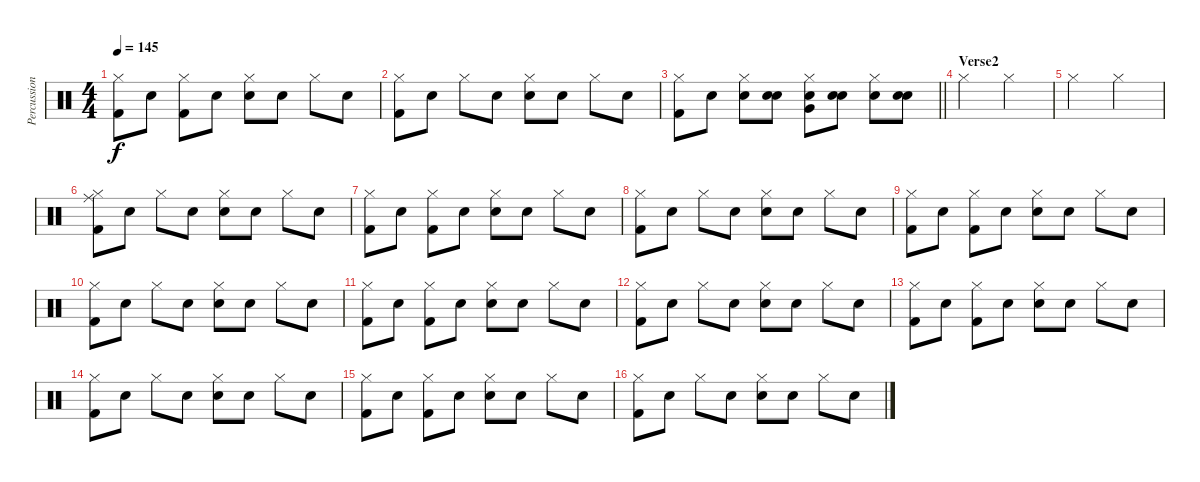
\track ("Percussion" "Percussion") {instrument percussion}
\staff {score}
\articulation defaults
\ts (4 4)
\tempo 145
\clef neutral
\ks c
("Hi-Hat (closed)" "Kick (hit) 2").8{dy f} "Snare (hit)"{x}.8 ("Hi-Hat (closed)" "Kick (hit) 2").8 "Snare (hit)"{x}.8 ("Hi-Hat (closed)" "Electric Snare (hit)").8 "Snare (hit)"{x}.8 "Hi-Hat (closed)".8 "Snare (hit)"{x}.8 |
("Hi-Hat (closed)" "Kick (hit) 2").8 "Snare (hit)"{x}.8 "Hi-Hat (closed)".8 "Snare (hit)"{x}.8 ("Hi-Hat (closed)" "Electric Snare (hit)").8 "Snare (hit)"{x}.8 "Hi-Hat (closed)".8 "Snare (hit)"{x}.8 |
\barLineRight lightlight
("Hi-Hat (closed)" "Kick (hit) 2").8 "Snare (hit)"{x}.8 ("Hi-Hat (closed)" "Electric Snare (hit)"{x}).8 ("Snare (hit)"{x} "Electric Snare (hit)").8 ("Hi-Hat (closed)" "Very Low Tom (hit)" "Electric Snare (hit)").8 ("Snare (hit)"{x} "Electric Snare (hit)"{x}).8 ("Hi-Hat (closed)" "Electric Snare (hit)").8 ("Snare (hit)"{x} "Electric Snare (hit)").8 |
\section ("" "Verse2")
"Hi-Hat (closed)".2 "Hi-Hat (closed)".2 |
"Hi-Hat (closed)".2 "Hi-Hat (closed)".2 |
("Hi-Hat (closed)" "Ride (middle)" "Kick (hit) 2").8 "Snare (hit)"{x}.8 "Hi-Hat (closed)".8 "Snare (hit)"{x}.8 ("Hi-Hat (closed)" "Electric Snare (hit)").8 "Snare (hit)"{x}.8 "Hi-Hat (closed)".8 "Snare (hit)"{x}.8 |
("Hi-Hat (closed)" "Kick (hit) 2").8 "Snare (hit)"{x}.8 ("Hi-Hat (closed)" "Kick (hit) 2").8 "Snare (hit)"{x}.8 ("Hi-Hat (closed)" "Electric Snare (hit)").8 "Snare (hit)"{x}.8 "Hi-Hat (closed)".8 "Snare (hit)"{x}.8 |
("Hi-Hat (closed)" "Kick (hit) 2").8 "Snare (hit)"{x}.8 "Hi-Hat (closed)".8 "Snare (hit)"{x}.8 ("Hi-Hat (closed)" "Electric Snare (hit)").8 "Snare (hit)"{x}.8 "Hi-Hat (closed)".8 "Snare (hit)"{x}.8 |
("Hi-Hat (closed)" "Kick (hit) 2").8 "Snare (hit)"{x}.8 ("Hi-Hat (closed)" "Kick (hit) 2").8 "Snare (hit)"{x}.8 ("Hi-Hat (closed)" "Electric Snare (hit)").8 "Snare (hit)"{x}.8 "Hi-Hat (closed)".8 "Snare (hit)"{x}.8 |
("Hi-Hat (closed)" "Kick (hit) 2").8 "Snare (hit)"{x}.8 "Hi-Hat (closed)".8 "Snare (hit)"{x}.8 ("Hi-Hat (closed)" "Electric Snare (hit)").8 "Snare (hit)"{x}.8 "Hi-Hat (closed)".8 "Snare (hit)"{x}.8 |
("Hi-Hat (closed)" "Kick (hit) 2").8 "Snare (hit)"{x}.8 ("Hi-Hat (closed)" "Kick (hit) 2").8 "Snare (hit)"{x}.8 ("Hi-Hat (closed)" "Electric Snare (hit)").8 "Snare (hit)"{x}.8 "Hi-Hat (closed)".8 "Snare (hit)"{x}.8 |
("Hi-Hat (closed)" "Kick (hit) 2").8 "Snare (hit)"{x}.8 "Hi-Hat (closed)".8 "Snare (hit)"{x}.8 ("Hi-Hat (closed)" "Electric Snare (hit)").8 "Snare (hit)"{x}.8 "Hi-Hat (closed)".8 "Snare (hit)"{x}.8 |
("Hi-Hat (closed)" "Kick (hit) 2").8 "Snare (hit)"{x}.8 ("Hi-Hat (closed)" "Kick (hit) 2").8 "Snare (hit)"{x}.8 ("Hi-Hat (closed)" "Electric Snare (hit)").8 "Snare (hit)"{x}.8 "Hi-Hat (closed)".8 "Snare (hit)"{x}.8 |
("Hi-Hat (closed)" "Kick (hit) 2").8 "Snare (hit)"{x}.8 "Hi-Hat (closed)".8 "Snare (hit)"{x}.8 ("Hi-Hat (closed)" "Electric Snare (hit)").8 "Snare (hit)"{x}.8 "Hi-Hat (closed)".8 "Snare (hit)"{x}.8 |
("Hi-Hat (closed)" "Kick (hit) 2").8 "Snare (hit)"{x}.8 ("Hi-Hat (closed)" "Kick (hit) 2").8 "Snare (hit)"{x}.8 ("Hi-Hat (closed)" "Electric Snare (hit)").8 "Snare (hit)"{x}.8 "Hi-Hat (closed)".8 "Snare (hit)"{x}.8 |
("Hi-Hat (closed)" "Kick (hit) 2").8 "Snare (hit)"{x}.8 "Hi-Hat (closed)".8 "Snare (hit)"{x}.8 ("Hi-Hat (closed)" "Electric Snare (hit)").8 "Snare (hit)"{x}.8 "Hi-Hat (closed)".8 "Snare (hit)"{x}.8
